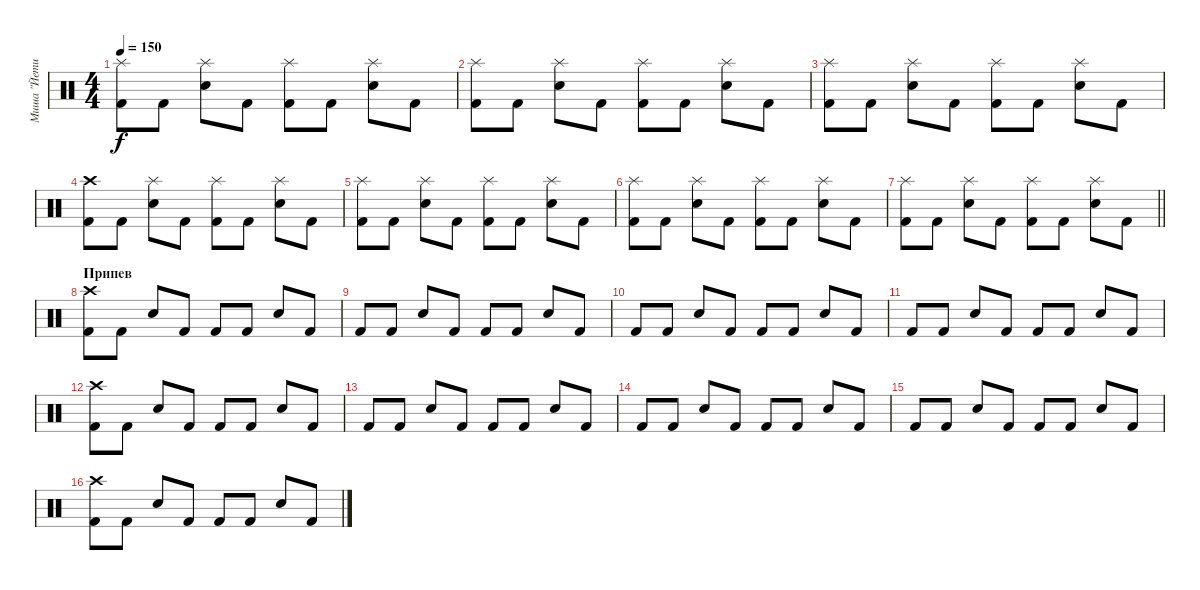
\track ("Миша \"Йети\" Евсеев" "Миша \"Йети") {instrument percussion}
\staff {score}
\articulation defaults
\ts (4 4)
\tempo 150
\clef neutral
\ks c
("Kick (hit) 2" "Splash (hit)").8{dy f} "Kick (hit) 2".8 ("Snare (hit) 2" "Splash (hit)").8 "Kick (hit) 2".8 ("Kick (hit) 2" "Splash (hit)").8 "Kick (hit) 2".8 ("Snare (hit) 2" "Splash (hit)").8 "Kick (hit) 2".8 |
("Kick (hit) 2" "Splash (hit)").8 "Kick (hit) 2".8 ("Snare (hit) 2" "Splash (hit)").8 "Kick (hit) 2".8 ("Kick (hit) 2" "Splash (hit)").8 "Kick (hit) 2".8 ("Snare (hit) 2" "Splash (hit)").8 "Kick (hit) 2".8 |
("Kick (hit) 2" "Splash (hit)").8 "Kick (hit) 2".8 ("Snare (hit) 2" "Splash (hit)").8 "Kick (hit) 2".8 ("Kick (hit) 2" "Splash (hit)").8 "Kick (hit) 2".8 ("Snare (hit) 2" "Splash (hit)").8 "Kick (hit) 2".8 |
("Kick (hit) 2" "Crash high (hit)").8 "Kick (hit) 2".8 ("Snare (hit) 2" "Splash (hit)").8 "Kick (hit) 2".8 ("Kick (hit) 2" "Splash (hit)").8 "Kick (hit) 2".8 ("Snare (hit) 2" "Splash (hit)").8 "Kick (hit) 2".8 |
("Kick (hit) 2" "Splash (hit)").8 "Kick (hit) 2".8 ("Snare (hit) 2" "Splash (hit)").8 "Kick (hit) 2".8 ("Kick (hit) 2" "Splash (hit)").8 "Kick (hit) 2".8 ("Snare (hit) 2" "Splash (hit)").8 "Kick (hit) 2".8 |
("Kick (hit) 2" "Splash (hit)").8 "Kick (hit) 2".8 ("Snare (hit) 2" "Splash (hit)").8 "Kick (hit) 2".8 ("Kick (hit) 2" "Splash (hit)").8 "Kick (hit) 2".8 ("Snare (hit) 2" "Splash (hit)").8 "Kick (hit) 2".8 |
\barLineRight lightlight
("Kick (hit) 2" "Splash (hit)").8 "Kick (hit) 2".8 ("Snare (hit) 2" "Splash (hit)").8 "Kick (hit) 2".8 ("Kick (hit) 2" "Splash (hit)").8 "Kick (hit) 2".8 ("Snare (hit) 2" "Splash (hit)").8 "Kick (hit) 2".8 |
\section ("" "Припев")
("Kick (hit) 2" "Crash high (hit)").8 "Kick (hit) 2".8 "Snare (hit) 2".8 "Kick (hit) 2".8 "Kick (hit) 2".8 "Kick (hit) 2".8 "Snare (hit) 2".8 "Kick (hit) 2".8 |
"Kick (hit) 2".8 "Kick (hit) 2".8 "Snare (hit) 2".8 "Kick (hit) 2".8 "Kick (hit) 2".8 "Kick (hit) 2".8 "Snare (hit) 2".8 "Kick (hit) 2".8 |
"Kick (hit) 2".8 "Kick (hit) 2".8 "Snare (hit) 2".8 "Kick (hit) 2".8 "Kick (hit) 2".8 "Kick (hit) 2".8 "Snare (hit) 2".8 "Kick (hit) 2".8 |
"Kick (hit) 2".8 "Kick (hit) 2".8 "Snare (hit) 2".8 "Kick (hit) 2".8 "Kick (hit) 2".8 "Kick (hit) 2".8 "Snare (hit) 2".8 "Kick (hit) 2".8 |
("Kick (hit) 2" "Crash high (hit)").8 "Kick (hit) 2".8 "Snare (hit) 2".8 "Kick (hit) 2".8 "Kick (hit) 2".8 "Kick (hit) 2".8 "Snare (hit) 2".8 "Kick (hit) 2".8 |
"Kick (hit) 2".8 "Kick (hit) 2".8 "Snare (hit) 2".8 "Kick (hit) 2".8 "Kick (hit) 2".8 "Kick (hit) 2".8 "Snare (hit) 2".8 "Kick (hit) 2".8 |
"Kick (hit) 2".8 "Kick (hit) 2".8 "Snare (hit) 2".8 "Kick (hit) 2".8 "Kick (hit) 2".8 "Kick (hit) 2".8 "Snare (hit) 2".8 "Kick (hit) 2".8 |
"Kick (hit) 2".8 "Kick (hit) 2".8 "Snare (hit) 2".8 "Kick (hit) 2".8 "Kick (hit) 2".8 "Kick (hit) 2".8 "Snare (hit) 2".8 "Kick (hit) 2".8 |
("Kick (hit) 2" "Crash high (hit)").8 "Kick (hit) 2".8 "Snare (hit) 2".8 "Kick (hit) 2".8 "Kick (hit) 2".8 "Kick (hit) 2".8 "Snare (hit) 2".8 "Kick (hit) 2".8
